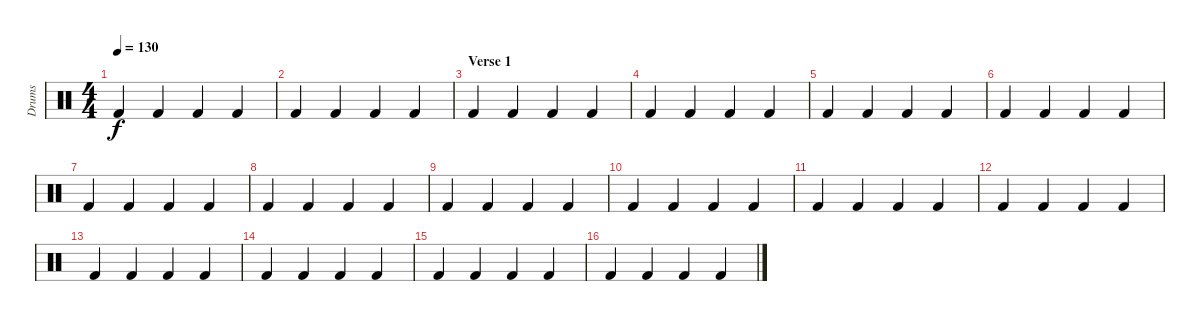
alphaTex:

\track ("Drums" "Drums") {instrument percussion}
\staff {score}
\articulation defaults
\ts (4 4)
\tempo 130
\clef neutral
\ks c "Kick (hit) 2".4{dy f} "Kick (hit) 2".4 "Kick (hit) 2".4 "Kick (hit) 2".4
|
"Kick (hit) 2".4 "Kick (hit) 2".4 "Kick (hit) 2".4 "Kick (hit) 2".4 |
\section ("" "Verse 1")
"Kick (hit) 2".4 "Kick (hit) 2".4 "Kick (hit) 2".4 "Kick (hit) 2".4 |
"Kick (hit) 2".4 "Kick (hit) 2".4 "Kick (hit) 2".4 "Kick (hit) 2".4 |
"Kick (hit) 2".4 "Kick (hit) 2".4 "Kick (hit) 2".4 "Kick (hit) 2".4 |
"Kick (hit) 2".4 "Kick (hit) 2".4 "Kick (hit) 2".4 "Kick (hit) 2".4 |
"Kick (hit) 2".4 "Kick (hit) 2".4 "Kick (hit) 2".4 "Kick (hit) 2".4 |
"Kick (hit) 2".4 "Kick (hit) 2".4 "Kick (hit) 2".4 "Kick (hit) 2".4 |
"Kick (hit) 2".4 "Kick (hit) 2".4 "Kick (hit) 2".4 "Kick (hit) 2".4 |
"Kick (hit) 2".4 "Kick (hit) 2".4 "Kick (hit) 2".4 "Kick (hit) 2".4 |
"Kick (hit) 2".4 "Kick (hit) 2".4 "Kick (hit) 2".4 "Kick (hit) 2".4 |
"Kick (hit) 2".4 "Kick (hit) 2".4 "Kick (hit) 2".4 "Kick (hit) 2".4 |
"Kick (hit) 2".4 "Kick (hit) 2".4 "Kick (hit) 2".4 "Kick (hit) 2".4 |
"Kick (hit) 2".4 "Kick (hit) 2".4 "Kick (hit) 2".4 "Kick (hit) 2".4 |
"Kick (hit) 2".4 "Kick (hit) 2".4 "Kick (hit) 2".4 "Kick (hit) 2".4 |
"Kick (hit) 2".4 "Kick (hit) 2".4 "Kick (hit) 2".4 "Kick (hit) 2".4
